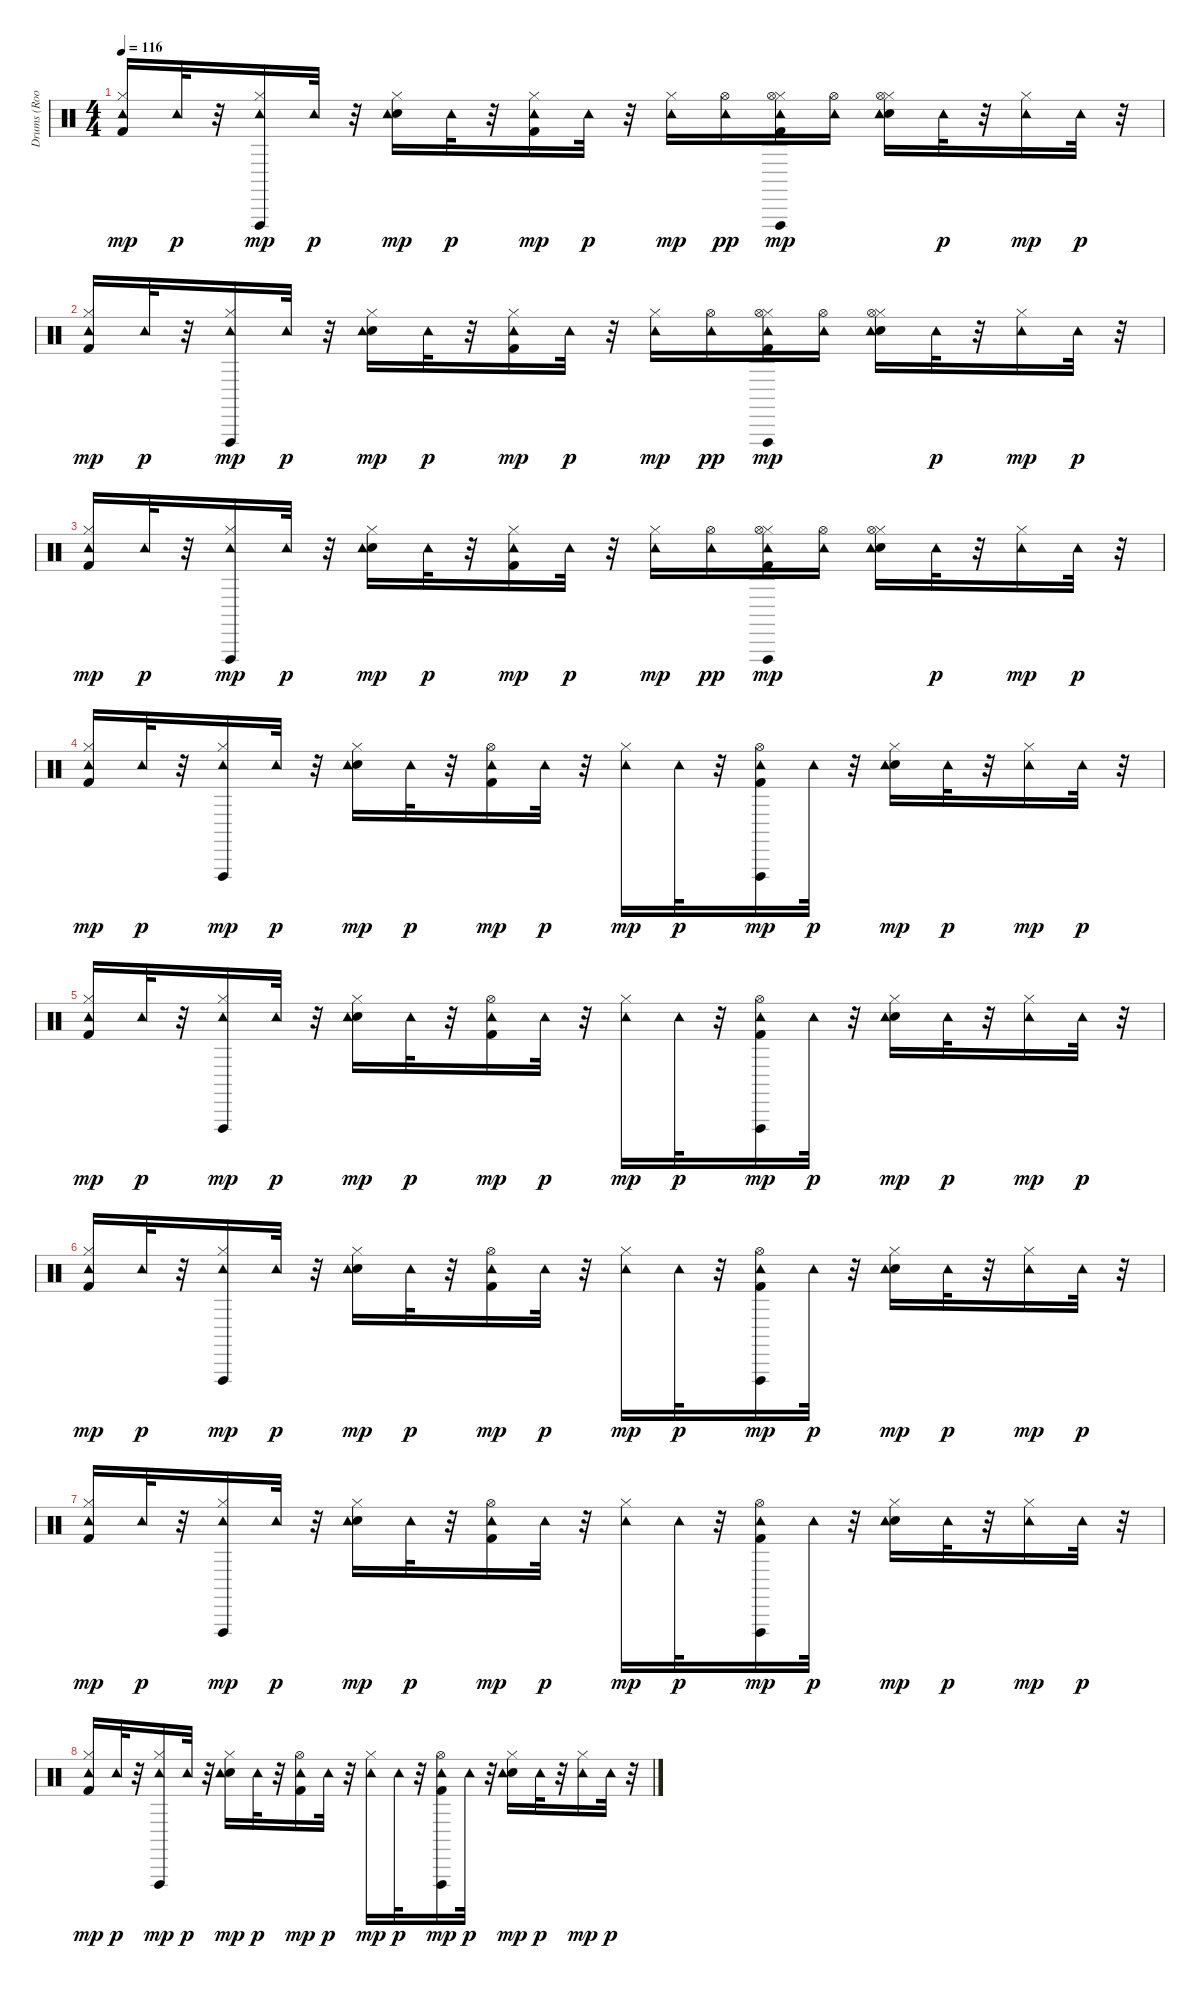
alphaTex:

\track ("Drums (Room Kit)    " "Drums (Roo") {instrument percussion}
\staff {score}
\articulation defaults
\ts (4 4)
\tempo 116
\clef neutral
\ks c
("Hi-Hat (closed)" "Kick (hit) 2" "Tambourine (hit)").16{dy mp} "Tambourine (hit)".32{dy p} r.32 ("Hi-Hat (closed)" "Tambourine (hit)" "Vibraslap (hit)").16{dy mp} "Tambourine (hit)".32{dy p} r.32 ("Hi-Hat (closed)" "Snare (hit) 2" "Tambourine (hit)").16{dy mp} "Tambourine (hit)".32{dy p} r.32 ("Hi-Hat (closed)" "Kick (hit) 2" "Tambourine (hit)").16{dy mp} "Tambourine (hit)".32{dy p} r.32 ("Hi-Hat (closed)" "Tambourine (hit)").16{dy mp} ("Tambourine (hit)" "Hi-Hat (open)").16{dy pp} ("Hi-Hat (closed)" "Kick (hit) 2" "Tambourine (hit)" "Hi-Hat (open)" "Vibraslap (hit)").16{dy mp} ("Tambourine (hit)" "Hi-Hat (open)").16 ("Hi-Hat (closed)" "Snare (hit) 2" "Tambourine (hit)" "Hi-Hat (open)").16 "Tambourine (hit)".32{dy p} r.32 ("Hi-Hat (closed)" "Tambourine (hit)").16{dy mp} "Tambourine (hit)".32{dy p} r.32 |
("Kick (hit) 2" "Hi-Hat (closed)" "Tambourine (hit)").16{dy mp} "Tambourine (hit)".32{dy p} r.32 ("Hi-Hat (closed)" "Tambourine (hit)" "Vibraslap (hit)").16{dy mp} "Tambourine (hit)".32{dy p} r.32 ("Snare (hit) 2" "Hi-Hat (closed)" "Tambourine (hit)").16{dy mp} "Tambourine (hit)".32{dy p} r.32 ("Kick (hit) 2" "Hi-Hat (closed)" "Tambourine (hit)").16{dy mp} "Tambourine (hit)".32{dy p} r.32 ("Hi-Hat (closed)" "Tambourine (hit)").16{dy mp} ("Tambourine (hit)" "Hi-Hat (open)").16{dy pp} ("Kick (hit) 2" "Hi-Hat (closed)" "Tambourine (hit)" "Hi-Hat (open)" "Vibraslap (hit)").16{dy mp} ("Tambourine (hit)" "Hi-Hat (open)").16 ("Snare (hit) 2" "Hi-Hat (closed)" "Tambourine (hit)" "Hi-Hat (open)").16 "Tambourine (hit)".32{dy p} r.32 ("Hi-Hat (closed)" "Tambourine (hit)").16{dy mp} "Tambourine (hit)".32{dy p} r.32 |
("Hi-Hat (closed)" "Kick (hit) 2" "Tambourine (hit)").16{dy mp} "Tambourine (hit)".32{dy p} r.32 ("Hi-Hat (closed)" "Tambourine (hit)" "Vibraslap (hit)").16{dy mp} "Tambourine (hit)".32{dy p} r.32 ("Hi-Hat (closed)" "Snare (hit) 2" "Tambourine (hit)").16{dy mp} "Tambourine (hit)".32{dy p} r.32 ("Hi-Hat (closed)" "Kick (hit) 2" "Tambourine (hit)").16{dy mp} "Tambourine (hit)".32{dy p} r.32 ("Hi-Hat (closed)" "Tambourine (hit)").16{dy mp} ("Tambourine (hit)" "Hi-Hat (open)").16{dy pp} ("Hi-Hat (closed)" "Kick (hit) 2" "Tambourine (hit)" "Hi-Hat (open)" "Vibraslap (hit)").16{dy mp} ("Tambourine (hit)" "Hi-Hat (open)").16 ("Hi-Hat (closed)" "Snare (hit) 2" "Tambourine (hit)" "Hi-Hat (open)").16 "Tambourine (hit)".32{dy p} r.32 ("Hi-Hat (closed)" "Tambourine (hit)").16{dy mp} "Tambourine (hit)".32{dy p} r.32 |
("Kick (hit) 2" "Hi-Hat (closed)" "Tambourine (hit)").16{dy mp} "Tambourine (hit)".32{dy p} r.32 ("Hi-Hat (closed)" "Tambourine (hit)" "Vibraslap (hit)").16{dy mp} "Tambourine (hit)".32{dy p} r.32 ("Snare (hit) 2" "Hi-Hat (closed)" "Tambourine (hit)").16{dy mp} "Tambourine (hit)".32{dy p} r.32 ("Kick (hit) 2" "Tambourine (hit)" "Hi-Hat (open)").16{dy mp} "Tambourine (hit)".32{dy p} r.32 ("Hi-Hat (closed)" "Tambourine (hit)").16{dy mp} "Tambourine (hit)".32{dy p} r.32 ("Kick (hit) 2" "Tambourine (hit)" "Vibraslap (hit)" "Hi-Hat (open)").16{dy mp} "Tambourine (hit)".32{dy p} r.32 ("Snare (hit) 2" "Hi-Hat (closed)" "Tambourine (hit)").16{dy mp} "Tambourine (hit)".32{dy p} r.32 ("Hi-Hat (closed)" "Tambourine (hit)").16{dy mp} "Tambourine (hit)".32{dy p} r.32 |
("Hi-Hat (closed)" "Kick (hit) 2" "Tambourine (hit)").16{dy mp} "Tambourine (hit)".32{dy p} r.32 ("Hi-Hat (closed)" "Tambourine (hit)" "Vibraslap (hit)").16{dy mp} "Tambourine (hit)".32{dy p} r.32 ("Hi-Hat (closed)" "Snare (hit) 2" "Tambourine (hit)").16{dy mp} "Tambourine (hit)".32{dy p} r.32 ("Kick (hit) 2" "Tambourine (hit)" "Hi-Hat (open)").16{dy mp} "Tambourine (hit)".32{dy p} r.32 ("Hi-Hat (closed)" "Tambourine (hit)").16{dy mp} "Tambourine (hit)".32{dy p} r.32 ("Kick (hit) 2" "Tambourine (hit)" "Vibraslap (hit)" "Hi-Hat (open)").16{dy mp} "Tambourine (hit)".32{dy p} r.32 ("Hi-Hat (closed)" "Snare (hit) 2" "Tambourine (hit)").16{dy mp} "Tambourine (hit)".32{dy p} r.32 ("Hi-Hat (closed)" "Tambourine (hit)").16{dy mp} "Tambourine (hit)".32{dy p} r.32 |
("Kick (hit) 2" "Hi-Hat (closed)" "Tambourine (hit)").16{dy mp} "Tambourine (hit)".32{dy p} r.32 ("Hi-Hat (closed)" "Tambourine (hit)" "Vibraslap (hit)").16{dy mp} "Tambourine (hit)".32{dy p} r.32 ("Snare (hit) 2" "Hi-Hat (closed)" "Tambourine (hit)").16{dy mp} "Tambourine (hit)".32{dy p} r.32 ("Kick (hit) 2" "Tambourine (hit)" "Hi-Hat (open)").16{dy mp} "Tambourine (hit)".32{dy p} r.32 ("Hi-Hat (closed)" "Tambourine (hit)").16{dy mp} "Tambourine (hit)".32{dy p} r.32 ("Kick (hit) 2" "Tambourine (hit)" "Vibraslap (hit)" "Hi-Hat (open)").16{dy mp} "Tambourine (hit)".32{dy p} r.32 ("Snare (hit) 2" "Hi-Hat (closed)" "Tambourine (hit)").16{dy mp} "Tambourine (hit)".32{dy p} r.32 ("Hi-Hat (closed)" "Tambourine (hit)").16{dy mp} "Tambourine (hit)".32{dy p} r.32 |
("Hi-Hat (closed)" "Kick (hit) 2" "Tambourine (hit)").16{dy mp} "Tambourine (hit)".32{dy p} r.32 ("Hi-Hat (closed)" "Tambourine (hit)" "Vibraslap (hit)").16{dy mp} "Tambourine (hit)".32{dy p} r.32 ("Snare (hit) 2" "Tambourine (hit)" "Hi-Hat (closed)").16{dy mp} "Tambourine (hit)".32{dy p} r.32 ("Kick (hit) 2" "Tambourine (hit)" "Hi-Hat (open)").16{dy mp} "Tambourine (hit)".32{dy p} r.32 ("Hi-Hat (closed)" "Tambourine (hit)").16{dy mp} "Tambourine (hit)".32{dy p} r.32 ("Kick (hit) 2" "Tambourine (hit)" "Vibraslap (hit)" "Hi-Hat (open)").16{dy mp} "Tambourine (hit)".32{dy p} r.32 ("Hi-Hat (closed)" "Snare (hit) 2" "Tambourine (hit)").16{dy mp} "Tambourine (hit)".32{dy p} r.32 ("Hi-Hat (closed)" "Tambourine (hit)").16{dy mp} "Tambourine (hit)".32{dy p} r.32 |
("Kick (hit) 2" "Hi-Hat (closed)" "Tambourine (hit)").16{dy mp} "Tambourine (hit)".32{dy p} r.32 ("Hi-Hat (closed)" "Tambourine (hit)" "Vibraslap (hit)").16{dy mp} "Tambourine (hit)".32{dy p} r.32 ("Snare (hit) 2" "Hi-Hat (closed)" "Tambourine (hit)").16{dy mp} "Tambourine (hit)".32{dy p} r.32 ("Kick (hit) 2" "Tambourine (hit)" "Hi-Hat (open)").16{dy mp} "Tambourine (hit)".32{dy p} r.32 ("Hi-Hat (closed)" "Tambourine (hit)").16{dy mp} "Tambourine (hit)".32{dy p} r.32 ("Kick (hit) 2" "Tambourine (hit)" "Vibraslap (hit)" "Hi-Hat (open)").16{dy mp} "Tambourine (hit)".32{dy p} r.32 ("Snare (hit) 2" "Hi-Hat (closed)" "Tambourine (hit)").16{dy mp} "Tambourine (hit)".32{dy p} r.32 ("Hi-Hat (closed)" "Tambourine (hit)").16{dy mp} "Tambourine (hit)".32{dy p} r.32
